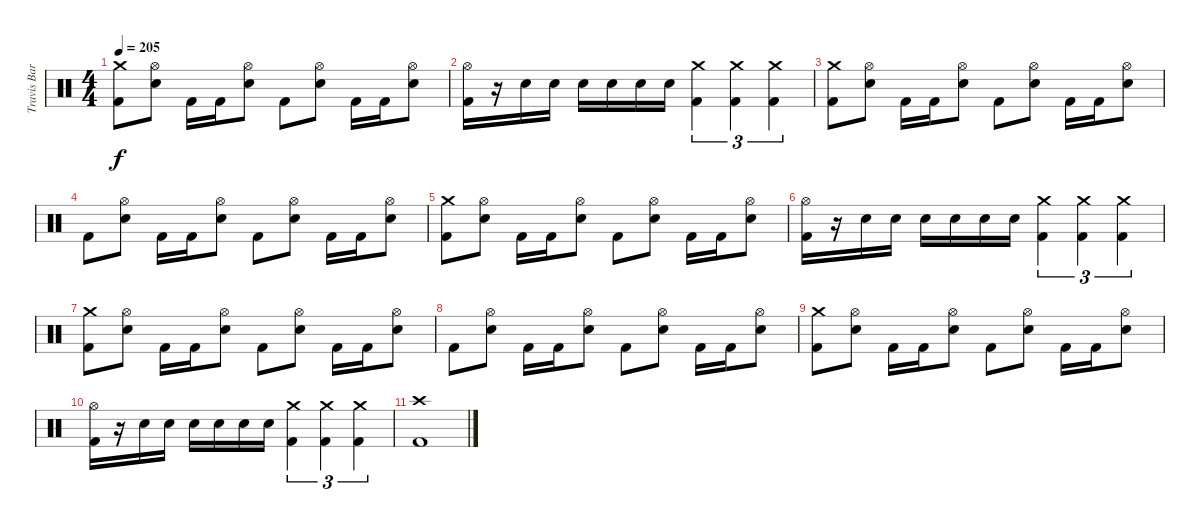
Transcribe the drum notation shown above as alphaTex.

\track ("Travis Barker (Drums)" "Travis Bar") {instrument percussion}
\staff {score}
\articulation defaults
\ts (4 4)
\tempo 205
\clef neutral
\ks c
("Crash medium (hit)" "Kick (hit) 2").8{dy f} ("Hi-Hat (open)" "Electric Snare (hit)").8 "Kick (hit) 2".16 "Kick (hit) 2".16 ("Hi-Hat (open)" "Electric Snare (hit)").8 "Kick (hit) 2".8 ("Hi-Hat (open)" "Electric Snare (hit)").8 "Kick (hit) 2".16 "Kick (hit) 2".16 ("Hi-Hat (open)" "Electric Snare (hit)").8 |
("Hi-Hat (open)" "Kick (hit) 2").16 r.16 "Electric Snare (hit)".16 "Electric Snare (hit)".16 "Electric Snare (hit)".16 "Electric Snare (hit)".16 "Electric Snare (hit)".16 "Electric Snare (hit)".16 ("Crash medium (hit)" "Kick (hit) 2").4{tu (3 2)} ("Crash medium (hit)" "Kick (hit) 2").4{tu (3 2)} ("Crash medium (hit)" "Kick (hit) 2").4{tu (3 2)} |
("Crash medium (hit)" "Kick (hit) 2").8 ("Hi-Hat (open)" "Electric Snare (hit)").8 "Kick (hit) 2".16 "Kick (hit) 2".16 ("Hi-Hat (open)" "Electric Snare (hit)").8 "Kick (hit) 2".8 ("Hi-Hat (open)" "Electric Snare (hit)").8 "Kick (hit) 2".16 "Kick (hit) 2".16 ("Hi-Hat (open)" "Electric Snare (hit)").8 |
"Kick (hit) 2".8 ("Hi-Hat (open)" "Electric Snare (hit)").8 "Kick (hit) 2".16 "Kick (hit) 2".16 ("Hi-Hat (open)" "Electric Snare (hit)").8 "Kick (hit) 2".8 ("Hi-Hat (open)" "Electric Snare (hit)").8 "Kick (hit) 2".16 "Kick (hit) 2".16 ("Hi-Hat (open)" "Electric Snare (hit)").8 |
("Crash medium (hit)" "Kick (hit) 2").8 ("Hi-Hat (open)" "Electric Snare (hit)").8 "Kick (hit) 2".16 "Kick (hit) 2".16 ("Hi-Hat (open)" "Electric Snare (hit)").8 "Kick (hit) 2".8 ("Hi-Hat (open)" "Electric Snare (hit)").8 "Kick (hit) 2".16 "Kick (hit) 2".16 ("Hi-Hat (open)" "Electric Snare (hit)").8 |
("Hi-Hat (open)" "Kick (hit) 2").16 r.16 "Electric Snare (hit)".16 "Electric Snare (hit)".16 "Electric Snare (hit)".16 "Electric Snare (hit)".16 "Electric Snare (hit)".16 "Electric Snare (hit)".16 ("Crash medium (hit)" "Kick (hit) 2").4{tu (3 2)} ("Crash medium (hit)" "Kick (hit) 2").4{tu (3 2)} ("Crash medium (hit)" "Kick (hit) 2").4{tu (3 2)} |
("Crash medium (hit)" "Kick (hit) 2").8 ("Hi-Hat (open)" "Electric Snare (hit)").8 "Kick (hit) 2".16 "Kick (hit) 2".16 ("Hi-Hat (open)" "Electric Snare (hit)").8 "Kick (hit) 2".8 ("Hi-Hat (open)" "Electric Snare (hit)").8 "Kick (hit) 2".16 "Kick (hit) 2".16 ("Hi-Hat (open)" "Electric Snare (hit)").8 |
"Kick (hit) 2".8 ("Hi-Hat (open)" "Electric Snare (hit)").8 "Kick (hit) 2".16 "Kick (hit) 2".16 ("Hi-Hat (open)" "Electric Snare (hit)").8 "Kick (hit) 2".8 ("Hi-Hat (open)" "Electric Snare (hit)").8 "Kick (hit) 2".16 "Kick (hit) 2".16 ("Hi-Hat (open)" "Electric Snare (hit)").8 |
("Crash medium (hit)" "Kick (hit) 2").8 ("Hi-Hat (open)" "Electric Snare (hit)").8 "Kick (hit) 2".16 "Kick (hit) 2".16 ("Hi-Hat (open)" "Electric Snare (hit)").8 "Kick (hit) 2".8 ("Hi-Hat (open)" "Electric Snare (hit)").8 "Kick (hit) 2".16 "Kick (hit) 2".16 ("Hi-Hat (open)" "Electric Snare (hit)").8 |
("Hi-Hat (open)" "Kick (hit) 2").16 r.16 "Electric Snare (hit)".16 "Electric Snare (hit)".16 "Electric Snare (hit)".16 "Electric Snare (hit)".16 "Electric Snare (hit)".16 "Electric Snare (hit)".16 ("Crash medium (hit)" "Kick (hit) 2").4{tu (3 2)} ("Crash medium (hit)" "Kick (hit) 2").4{tu (3 2)} ("Crash medium (hit)" "Kick (hit) 2").4{tu (3 2)} |
("Crash high (hit)" "Kick (hit) 2").1
